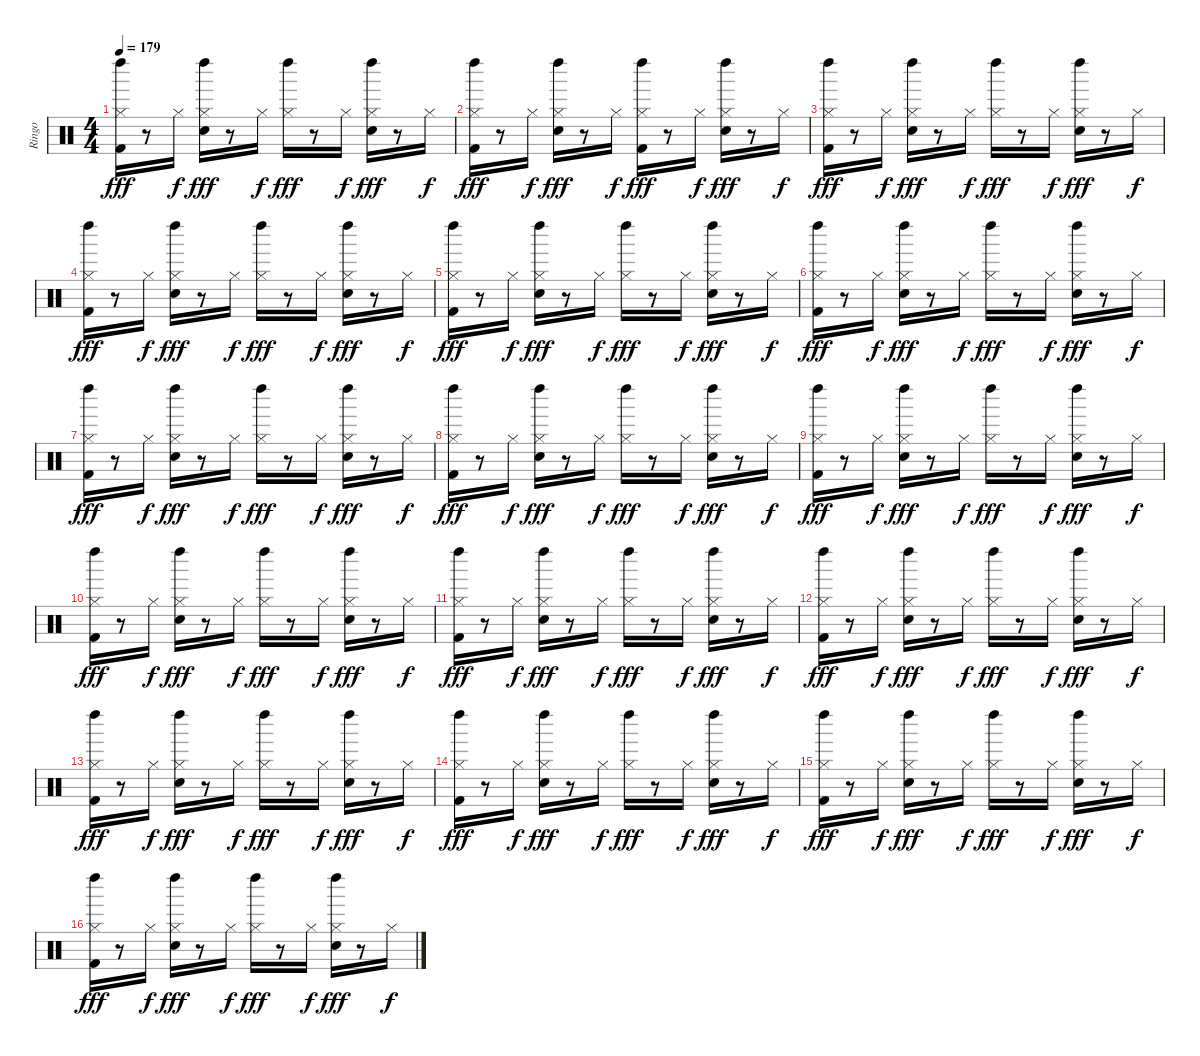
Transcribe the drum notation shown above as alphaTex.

\track ("Ringo" "Ringo") {instrument percussion}
\staff {score}
\articulation defaults
\ts (4 4)
\tempo 179
\clef neutral
\ks c
("Hi-Hat (closed)" "Kick (hit) 2" "Left Maraca (hit)").16{dy fff} r.8 "Hi-Hat (closed)".16{dy f} ("Hi-Hat (closed)" "Snare (hit) 2" "Left Maraca (hit)").16{dy fff} r.8 "Hi-Hat (closed)".16{dy f} ("Hi-Hat (closed)" "Left Maraca (hit)").16{dy fff} r.8 "Hi-Hat (closed)".16{dy f} ("Hi-Hat (closed)" "Snare (hit) 2" "Left Maraca (hit)").16{dy fff} r.8 "Hi-Hat (closed)".16{dy f} |
("Hi-Hat (closed)" "Kick (hit) 2" "Left Maraca (hit)").16{dy fff} r.8 "Hi-Hat (closed)".16{dy f} ("Hi-Hat (closed)" "Snare (hit) 2" "Left Maraca (hit)").16{dy fff} r.8 "Hi-Hat (closed)".16{dy f} ("Hi-Hat (closed)" "Kick (hit) 2" "Left Maraca (hit)").16{dy fff} r.8 "Hi-Hat (closed)".16{dy f} ("Hi-Hat (closed)" "Snare (hit) 2" "Left Maraca (hit)").16{dy fff} r.8 "Hi-Hat (closed)".16{dy f} |
("Hi-Hat (closed)" "Kick (hit) 2" "Left Maraca (hit)").16{dy fff} r.8 "Hi-Hat (closed)".16{dy f} ("Hi-Hat (closed)" "Snare (hit) 2" "Left Maraca (hit)").16{dy fff} r.8 "Hi-Hat (closed)".16{dy f} ("Hi-Hat (closed)" "Left Maraca (hit)").16{dy fff} r.8 "Hi-Hat (closed)".16{dy f} ("Hi-Hat (closed)" "Snare (hit) 2" "Left Maraca (hit)").16{dy fff} r.8 "Hi-Hat (closed)".16{dy f} |
("Hi-Hat (closed)" "Kick (hit) 2" "Left Maraca (hit)").16{dy fff} r.8 "Hi-Hat (closed)".16{dy f} ("Hi-Hat (closed)" "Snare (hit) 2" "Left Maraca (hit)").16{dy fff} r.8 "Hi-Hat (closed)".16{dy f} ("Hi-Hat (closed)" "Left Maraca (hit)").16{dy fff} r.8 "Hi-Hat (closed)".16{dy f} ("Hi-Hat (closed)" "Snare (hit) 2" "Left Maraca (hit)").16{dy fff} r.8 "Hi-Hat (closed)".16{dy f} |
("Hi-Hat (closed)" "Kick (hit) 2" "Left Maraca (hit)").16{dy fff} r.8 "Hi-Hat (closed)".16{dy f} ("Hi-Hat (closed)" "Snare (hit) 2" "Left Maraca (hit)").16{dy fff} r.8 "Hi-Hat (closed)".16{dy f} ("Hi-Hat (closed)" "Left Maraca (hit)").16{dy fff} r.8 "Hi-Hat (closed)".16{dy f} ("Hi-Hat (closed)" "Snare (hit) 2" "Left Maraca (hit)").16{dy fff} r.8 "Hi-Hat (closed)".16{dy f} |
("Hi-Hat (closed)" "Kick (hit) 2" "Left Maraca (hit)").16{dy fff} r.8 "Hi-Hat (closed)".16{dy f} ("Hi-Hat (closed)" "Snare (hit) 2" "Left Maraca (hit)").16{dy fff} r.8 "Hi-Hat (closed)".16{dy f} ("Hi-Hat (closed)" "Left Maraca (hit)").16{dy fff} r.8 "Hi-Hat (closed)".16{dy f} ("Hi-Hat (closed)" "Snare (hit) 2" "Left Maraca (hit)").16{dy fff} r.8 "Hi-Hat (closed)".16{dy f} |
("Hi-Hat (closed)" "Kick (hit) 2" "Left Maraca (hit)").16{dy fff} r.8 "Hi-Hat (closed)".16{dy f} ("Hi-Hat (closed)" "Snare (hit) 2" "Left Maraca (hit)").16{dy fff} r.8 "Hi-Hat (closed)".16{dy f} ("Hi-Hat (closed)" "Left Maraca (hit)").16{dy fff} r.8 "Hi-Hat (closed)".16{dy f} ("Hi-Hat (closed)" "Snare (hit) 2" "Left Maraca (hit)").16{dy fff} r.8 "Hi-Hat (closed)".16{dy f} |
("Hi-Hat (closed)" "Kick (hit) 2" "Left Maraca (hit)").16{dy fff} r.8 "Hi-Hat (closed)".16{dy f} ("Hi-Hat (closed)" "Snare (hit) 2" "Left Maraca (hit)").16{dy fff} r.8 "Hi-Hat (closed)".16{dy f} ("Hi-Hat (closed)" "Left Maraca (hit)").16{dy fff} r.8 "Hi-Hat (closed)".16{dy f} ("Hi-Hat (closed)" "Snare (hit) 2" "Left Maraca (hit)").16{dy fff} r.8 "Hi-Hat (closed)".16{dy f} |
("Hi-Hat (closed)" "Kick (hit) 2" "Left Maraca (hit)").16{dy fff} r.8 "Hi-Hat (closed)".16{dy f} ("Hi-Hat (closed)" "Snare (hit) 2" "Left Maraca (hit)").16{dy fff} r.8 "Hi-Hat (closed)".16{dy f} ("Hi-Hat (closed)" "Left Maraca (hit)").16{dy fff} r.8 "Hi-Hat (closed)".16{dy f} ("Hi-Hat (closed)" "Snare (hit) 2" "Left Maraca (hit)").16{dy fff} r.8 "Hi-Hat (closed)".16{dy f} |
("Hi-Hat (closed)" "Kick (hit) 2" "Left Maraca (hit)").16{dy fff} r.8 "Hi-Hat (closed)".16{dy f} ("Hi-Hat (closed)" "Snare (hit) 2" "Left Maraca (hit)").16{dy fff} r.8 "Hi-Hat (closed)".16{dy f} ("Hi-Hat (closed)" "Left Maraca (hit)").16{dy fff} r.8 "Hi-Hat (closed)".16{dy f} ("Hi-Hat (closed)" "Snare (hit) 2" "Left Maraca (hit)").16{dy fff} r.8 "Hi-Hat (closed)".16{dy f} |
("Hi-Hat (closed)" "Kick (hit) 2" "Left Maraca (hit)").16{dy fff} r.8 "Hi-Hat (closed)".16{dy f} ("Hi-Hat (closed)" "Snare (hit) 2" "Left Maraca (hit)").16{dy fff} r.8 "Hi-Hat (closed)".16{dy f} ("Hi-Hat (closed)" "Left Maraca (hit)").16{dy fff} r.8 "Hi-Hat (closed)".16{dy f} ("Hi-Hat (closed)" "Snare (hit) 2" "Left Maraca (hit)").16{dy fff} r.8 "Hi-Hat (closed)".16{dy f} |
("Hi-Hat (closed)" "Kick (hit) 2" "Left Maraca (hit)").16{dy fff} r.8 "Hi-Hat (closed)".16{dy f} ("Hi-Hat (closed)" "Snare (hit) 2" "Left Maraca (hit)").16{dy fff} r.8 "Hi-Hat (closed)".16{dy f} ("Hi-Hat (closed)" "Left Maraca (hit)").16{dy fff} r.8 "Hi-Hat (closed)".16{dy f} ("Hi-Hat (closed)" "Snare (hit) 2" "Left Maraca (hit)").16{dy fff} r.8 "Hi-Hat (closed)".16{dy f} |
("Hi-Hat (closed)" "Kick (hit) 2" "Left Maraca (hit)").16{dy fff} r.8 "Hi-Hat (closed)".16{dy f} ("Hi-Hat (closed)" "Snare (hit) 2" "Left Maraca (hit)").16{dy fff} r.8 "Hi-Hat (closed)".16{dy f} ("Hi-Hat (closed)" "Left Maraca (hit)").16{dy fff} r.8 "Hi-Hat (closed)".16{dy f} ("Hi-Hat (closed)" "Snare (hit) 2" "Left Maraca (hit)").16{dy fff} r.8 "Hi-Hat (closed)".16{dy f} |
("Hi-Hat (closed)" "Kick (hit) 2" "Left Maraca (hit)").16{dy fff} r.8 "Hi-Hat (closed)".16{dy f} ("Hi-Hat (closed)" "Snare (hit) 2" "Left Maraca (hit)").16{dy fff} r.8 "Hi-Hat (closed)".16{dy f} ("Hi-Hat (closed)" "Left Maraca (hit)").16{dy fff} r.8 "Hi-Hat (closed)".16{dy f} ("Hi-Hat (closed)" "Snare (hit) 2" "Left Maraca (hit)").16{dy fff} r.8 "Hi-Hat (closed)".16{dy f} |
("Hi-Hat (closed)" "Kick (hit) 2" "Left Maraca (hit)").16{dy fff} r.8 "Hi-Hat (closed)".16{dy f} ("Hi-Hat (closed)" "Snare (hit) 2" "Left Maraca (hit)").16{dy fff} r.8 "Hi-Hat (closed)".16{dy f} ("Hi-Hat (closed)" "Left Maraca (hit)").16{dy fff} r.8 "Hi-Hat (closed)".16{dy f} ("Hi-Hat (closed)" "Snare (hit) 2" "Left Maraca (hit)").16{dy fff} r.8 "Hi-Hat (closed)".16{dy f} |
("Hi-Hat (closed)" "Kick (hit) 2" "Left Maraca (hit)").16{dy fff} r.8 "Hi-Hat (closed)".16{dy f} ("Hi-Hat (closed)" "Snare (hit) 2" "Left Maraca (hit)").16{dy fff} r.8 "Hi-Hat (closed)".16{dy f} ("Hi-Hat (closed)" "Left Maraca (hit)").16{dy fff} r.8 "Hi-Hat (closed)".16{dy f} ("Hi-Hat (closed)" "Snare (hit) 2" "Left Maraca (hit)").16{dy fff} r.8 "Hi-Hat (closed)".16{dy f}
